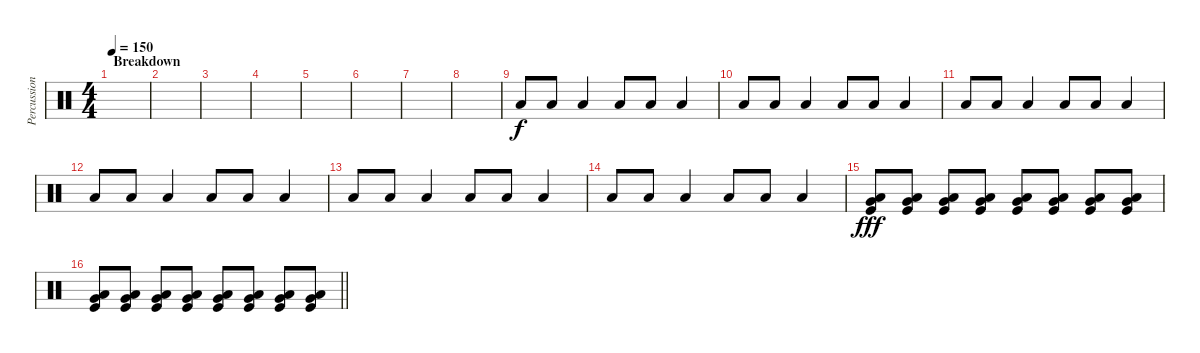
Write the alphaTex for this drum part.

\track ("Percussion" "Percussion") {instrument percussion}
\staff {score}
\articulation defaults
\ts (4 4)
\section ("" "Breakdown")
\tempo 150
\clef neutral
\ks c
|
|
|
|
|
|
|
|
"Low Floor Tom (hit)".8{dy f} "Low Floor Tom (hit)".8 "Low Floor Tom (hit)".4 "Low Floor Tom (hit)".8 "Low Floor Tom (hit)".8 "Low Floor Tom (hit)".4 |
"Low Floor Tom (hit)".8 "Low Floor Tom (hit)".8 "Low Floor Tom (hit)".4 "Low Floor Tom (hit)".8 "Low Floor Tom (hit)".8 "Low Floor Tom (hit)".4 |
"Low Floor Tom (hit)".8 "Low Floor Tom (hit)".8 "Low Floor Tom (hit)".4 "Low Floor Tom (hit)".8 "Low Floor Tom (hit)".8 "Low Floor Tom (hit)".4 |
"Low Floor Tom (hit)".8 "Low Floor Tom (hit)".8 "Low Floor Tom (hit)".4 "Low Floor Tom (hit)".8 "Low Floor Tom (hit)".8 "Low Floor Tom (hit)".4 |
"Low Floor Tom (hit)".8 "Low Floor Tom (hit)".8 "Low Floor Tom (hit)".4 "Low Floor Tom (hit)".8 "Low Floor Tom (hit)".8 "Low Floor Tom (hit)".4 |
"Low Floor Tom (hit)".8 "Low Floor Tom (hit)".8 "Low Floor Tom (hit)".4 "Low Floor Tom (hit)".8 "Low Floor Tom (hit)".8 "Low Floor Tom (hit)".4 |
("Low Tom (hit)" "Very Low Tom (hit)" "Kick (hit)").8{dy fff} ("Low Tom (hit)" "Very Low Tom (hit)" "Kick (hit)").8 ("Low Tom (hit)" "Very Low Tom (hit)" "Kick (hit)").8 ("Low Tom (hit)" "Very Low Tom (hit)" "Kick (hit)").8 ("Low Tom (hit)" "Very Low Tom (hit)" "Kick (hit)").8 ("Low Tom (hit)" "Very Low Tom (hit)" "Kick (hit)").8 ("Low Tom (hit)" "Very Low Tom (hit)" "Kick (hit)").8 ("Low Tom (hit)" "Very Low Tom (hit)" "Kick (hit)").8 |
\barLineRight lightlight
("Low Tom (hit)" "Very Low Tom (hit)" "Kick (hit)").8 ("Low Tom (hit)" "Very Low Tom (hit)" "Kick (hit)").8 ("Low Tom (hit)" "Very Low Tom (hit)" "Kick (hit)").8 ("Low Tom (hit)" "Very Low Tom (hit)" "Kick (hit)").8 ("Low Tom (hit)" "Very Low Tom (hit)" "Kick (hit)").8 ("Low Tom (hit)" "Very Low Tom (hit)" "Kick (hit)").8 ("Low Tom (hit)" "Very Low Tom (hit)" "Kick (hit)").8 ("Low Tom (hit)" "Very Low Tom (hit)" "Kick (hit)").8
